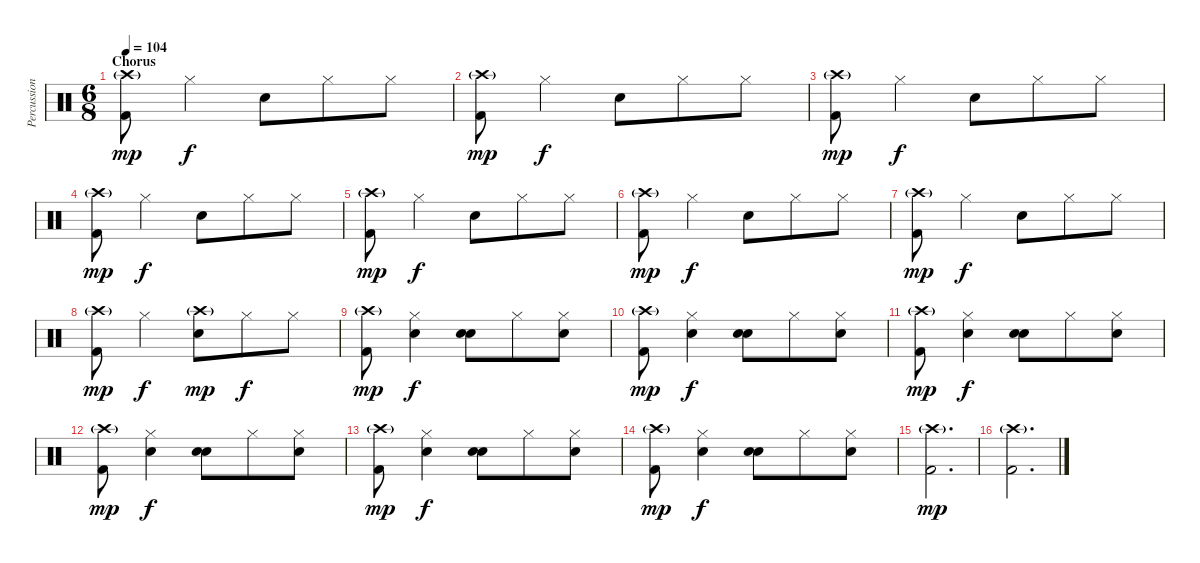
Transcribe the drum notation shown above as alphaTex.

\track ("Percussion" "Percussion") {instrument percussion}
\staff {score}
\articulation defaults
\ts (6 8)
\section ("" "Chorus")
\tempo 104
\clef neutral
\ks c
("Crash high (hit)"{g} "Kick (hit) 2").8{dy mp} "Hi-Hat (closed)".4{dy f} "Snare (hit) 2".8 "Hi-Hat (closed)".8 "Hi-Hat (closed)".8 |
("Crash high (hit)"{g} "Kick (hit) 2").8{dy mp} "Hi-Hat (closed)".4{dy f} "Snare (hit) 2".8 "Hi-Hat (closed)".8 "Hi-Hat (closed)".8 |
("Crash high (hit)"{g} "Kick (hit) 2").8{dy mp} "Hi-Hat (closed)".4{dy f} "Snare (hit) 2".8 "Hi-Hat (closed)".8 "Hi-Hat (closed)".8 |
("Crash high (hit)"{g} "Kick (hit) 2").8{dy mp} "Hi-Hat (closed)".4{dy f} "Snare (hit) 2".8 "Hi-Hat (closed)".8 "Hi-Hat (closed)".8 |
("Crash high (hit)"{g} "Kick (hit) 2").8{dy mp} "Hi-Hat (closed)".4{dy f} "Snare (hit) 2".8 "Hi-Hat (closed)".8 "Hi-Hat (closed)".8 |
("Crash high (hit)"{g} "Kick (hit) 2").8{dy mp} "Hi-Hat (closed)".4{dy f} "Snare (hit) 2".8 "Hi-Hat (closed)".8 "Hi-Hat (closed)".8 |
("Crash high (hit)"{g} "Kick (hit) 2").8{dy mp} "Hi-Hat (closed)".4{dy f} "Snare (hit) 2".8 "Hi-Hat (closed)".8 "Hi-Hat (closed)".8 |
("Crash high (hit)"{g} "Kick (hit) 2").8{dy mp} "Hi-Hat (closed)".4{dy f} ("Crash high (hit)"{g} "Snare (hit) 2").8{dy mp} "Hi-Hat (closed)".8{dy f} "Hi-Hat (closed)".8 |
("Crash high (hit)"{g} "Kick (hit) 2").8{dy mp} ("Hi-Hat (closed)" "Hand Clap (hit)").4{dy f} ("Snare (hit) 2" "Hand Clap (hit)").8 "Hi-Hat (closed)".8 ("Hi-Hat (closed)" "Hand Clap (hit)").8 |
("Crash high (hit)"{g} "Kick (hit) 2").8{dy mp} ("Hi-Hat (closed)" "Hand Clap (hit)").4{dy f} ("Snare (hit) 2" "Hand Clap (hit)").8 "Hi-Hat (closed)".8 ("Hi-Hat (closed)" "Hand Clap (hit)").8 |
("Crash high (hit)"{g} "Kick (hit) 2").8{dy mp} ("Hi-Hat (closed)" "Hand Clap (hit)").4{dy f} ("Snare (hit) 2" "Hand Clap (hit)").8 "Hi-Hat (closed)".8 ("Hi-Hat (closed)" "Hand Clap (hit)").8 |
("Crash high (hit)"{g} "Kick (hit) 2").8{dy mp} ("Hi-Hat (closed)" "Hand Clap (hit)").4{dy f} ("Snare (hit) 2" "Hand Clap (hit)").8 "Hi-Hat (closed)".8 ("Hi-Hat (closed)" "Hand Clap (hit)").8 |
("Crash high (hit)"{g} "Kick (hit) 2").8{dy mp} ("Hi-Hat (closed)" "Hand Clap (hit)").4{dy f} ("Snare (hit) 2" "Hand Clap (hit)").8 "Hi-Hat (closed)".8 ("Hi-Hat (closed)" "Hand Clap (hit)").8 |
("Crash high (hit)"{g} "Kick (hit) 2").8{dy mp} ("Hi-Hat (closed)" "Hand Clap (hit)").4{dy f} ("Snare (hit) 2" "Hand Clap (hit)").8 "Hi-Hat (closed)".8 ("Hi-Hat (closed)" "Hand Clap (hit)").8 |
("Crash high (hit)"{g} "Kick (hit) 2").2{d dy mp} |
("Crash high (hit)"{g} "Kick (hit) 2").2{d}
